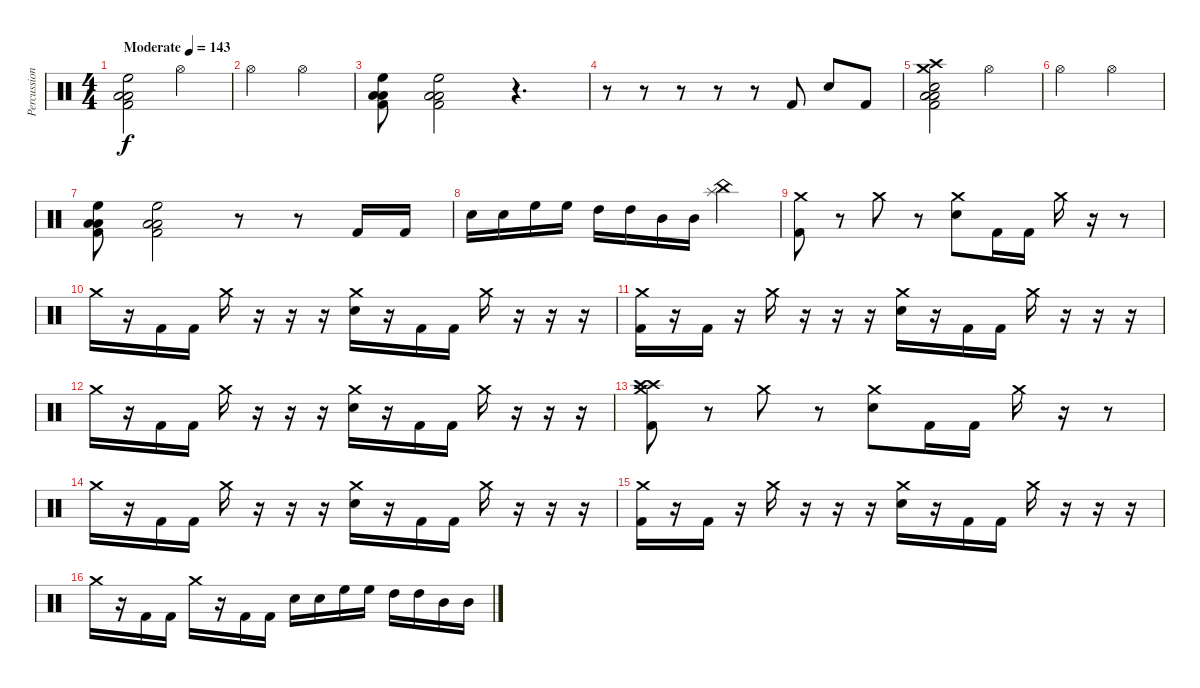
\track ("Percussion" "Percussion") {instrument percussion}
\staff {score}
\articulation defaults
\ts (4 4)
\tempo (143 "Moderate")
\clef neutral
\ks c
("High Floor Tom (hit)" "Low Tom (hit)" "Low Tom (hit)" "Kick (hit) 2").2{dy f} "Hi-Hat (open)".2 |
"Hi-Hat (open)".2 "Hi-Hat (open)".2 |
("High Floor Tom (hit)" "Low Tom (hit)" "Low Tom (hit)" "Kick (hit) 2").8 ("High Floor Tom (hit)" "Low Tom (hit)" "Low Tom (hit)" "Kick (hit) 2").2 r.4{d} |
r.8 r.8 r.8 r.8 r.8 "Kick (hit) 2".8 "Electric Snare (hit)".8 "Kick (hit) 2".8 |
("Crash high (hit)" "Low Tom (hit)" "Low Tom (hit)" "Electric Snare (hit)" "Crash medium (hit)" "Kick (hit) 2").2 "Hi-Hat (open)".2 |
"Hi-Hat (open)".2 "Hi-Hat (open)".2 |
("High Floor Tom (hit)" "Low Tom (hit)" "Low Tom (hit)" "Kick (hit) 2").8 ("High Floor Tom (hit)" "Low Tom (hit)" "Low Tom (hit)" "Kick (hit) 2").2 r.8 r.8 "Kick (hit) 2".16 "Kick (hit) 2".16 |
"Electric Snare (hit)".16 "Electric Snare (hit)".16 "High Floor Tom (hit)".16 "High Floor Tom (hit)".16 "High Tom (hit)".16 "High Tom (hit)".16 "Mid Tom (hit)".16 "Mid Tom (hit)".16 ("China (hit)" "Splash (hit)").2 |
("Crash medium (hit)" "Kick (hit) 2").8 r.8 "Crash medium (hit)".8 r.8 ("Crash medium (hit)" "Electric Snare (hit)").8 "Kick (hit) 2".16 "Kick (hit) 2".16 "Crash medium (hit)".16 r.16 r.8 |
"Crash medium (hit)".16 r.16 "Kick (hit) 2".16 "Kick (hit) 2".16 "Crash medium (hit)".16 r.16 r.16 r.16 ("Crash medium (hit)" "Electric Snare (hit)").16 r.16 "Kick (hit) 2".16 "Kick (hit) 2".16 "Crash medium (hit)".16 r.16 r.16 r.16 |
("Crash medium (hit)" "Kick (hit) 2").16 r.16 "Kick (hit) 2".16 r.16 "Crash medium (hit)".16 r.16 r.16 r.16 ("Crash medium (hit)" "Electric Snare (hit)").16 r.16 "Kick (hit) 2".16 "Kick (hit) 2".16 "Crash medium (hit)".16 r.16 r.16 r.16 |
"Crash medium (hit)".16 r.16 "Kick (hit) 2".16 "Kick (hit) 2".16 "Crash medium (hit)".16 r.16 r.16 r.16 ("Crash medium (hit)" "Electric Snare (hit)").16 r.16 "Kick (hit) 2".16 "Kick (hit) 2".16 "Crash medium (hit)".16 r.16 r.16 r.16 |
("Crash high (hit)" "Crash medium (hit)" "Crash high (hit)" "Kick (hit) 2").8 r.8 "Crash medium (hit)".8 r.8 ("Crash medium (hit)" "Electric Snare (hit)").8 "Kick (hit) 2".16 "Kick (hit) 2".16 "Crash medium (hit)".16 r.16 r.8 |
"Crash medium (hit)".16 r.16 "Kick (hit) 2".16 "Kick (hit) 2".16 "Crash medium (hit)".16 r.16 r.16 r.16 ("Crash medium (hit)" "Electric Snare (hit)").16 r.16 "Kick (hit) 2".16 "Kick (hit) 2".16 "Crash medium (hit)".16 r.16 r.16 r.16 |
("Crash medium (hit)" "Kick (hit) 2").16 r.16 "Kick (hit) 2".16 r.16 "Crash medium (hit)".16 r.16 r.16 r.16 ("Crash medium (hit)" "Electric Snare (hit)").16 r.16 "Kick (hit) 2".16 "Kick (hit) 2".16 "Crash medium (hit)".16 r.16 r.16 r.16 |
"Crash medium (hit)".16 r.16 "Kick (hit) 2".16 "Kick (hit) 2".16 "Crash medium (hit)".16 r.16 "Kick (hit) 2".16 "Kick (hit) 2".16 "Electric Snare (hit)".16 "Electric Snare (hit)".16 "High Floor Tom (hit)".16 "High Floor Tom (hit)".16 "High Tom (hit)".16 "High Tom (hit)".16 "Mid Tom (hit)".16 "Mid Tom (hit)".16
